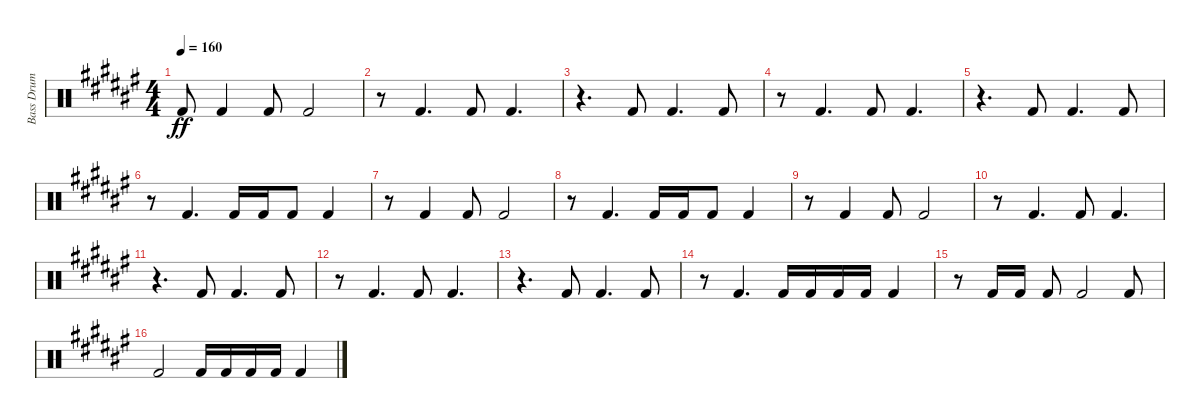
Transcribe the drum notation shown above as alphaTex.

\track ("Bass Drum" "Bass Drum") {instrument percussion}
\staff {score}
\articulation defaults
\ts (4 4)
\tempo 160
\clef neutral
\ks d#minor "Kick (hit) 2"{t}.8{dy ff} "Kick (hit) 2".4 "Kick (hit) 2".8 "Kick (hit) 2".2
|
r.8 "Kick (hit) 2".4{d} "Kick (hit) 2".8 "Kick (hit) 2".4{d} |
r.4{d} "Kick (hit) 2".8 "Kick (hit) 2".4{d} "Kick (hit) 2".8 |
r.8 "Kick (hit) 2".4{d} "Kick (hit) 2".8 "Kick (hit) 2".4{d} |
r.4{d} "Kick (hit) 2".8 "Kick (hit) 2".4{d} "Kick (hit) 2".8 |
r.8 "Kick (hit) 2".4{d} "Kick (hit) 2".16 "Kick (hit) 2".16 "Kick (hit) 2".8 "Kick (hit) 2".4 |
r.8 "Kick (hit) 2".4 "Kick (hit) 2".8 "Kick (hit) 2".2 |
r.8 "Kick (hit) 2".4{d} "Kick (hit) 2".16 "Kick (hit) 2".16 "Kick (hit) 2".8 "Kick (hit) 2".4 |
r.8 "Kick (hit) 2".4 "Kick (hit) 2".8 "Kick (hit) 2".2 |
r.8 "Kick (hit) 2".4{d} "Kick (hit) 2".8 "Kick (hit) 2".4{d} |
r.4{d} "Kick (hit) 2".8 "Kick (hit) 2".4{d} "Kick (hit) 2".8 |
r.8 "Kick (hit) 2".4{d} "Kick (hit) 2".8 "Kick (hit) 2".4{d} |
r.4{d} "Kick (hit) 2".8 "Kick (hit) 2".4{d} "Kick (hit) 2".8 |
r.8 "Kick (hit) 2".4{d} "Kick (hit) 2".16 "Kick (hit) 2".16 "Kick (hit) 2".16 "Kick (hit) 2".16 "Kick (hit) 2".4 |
r.8 "Kick (hit) 2".16 "Kick (hit) 2".16 "Kick (hit) 2".8 "Kick (hit) 2".2 "Kick (hit) 2".8 |
"Kick (hit) 2".2 "Kick (hit) 2".16 "Kick (hit) 2".16 "Kick (hit) 2".16 "Kick (hit) 2".16 "Kick (hit) 2".4
